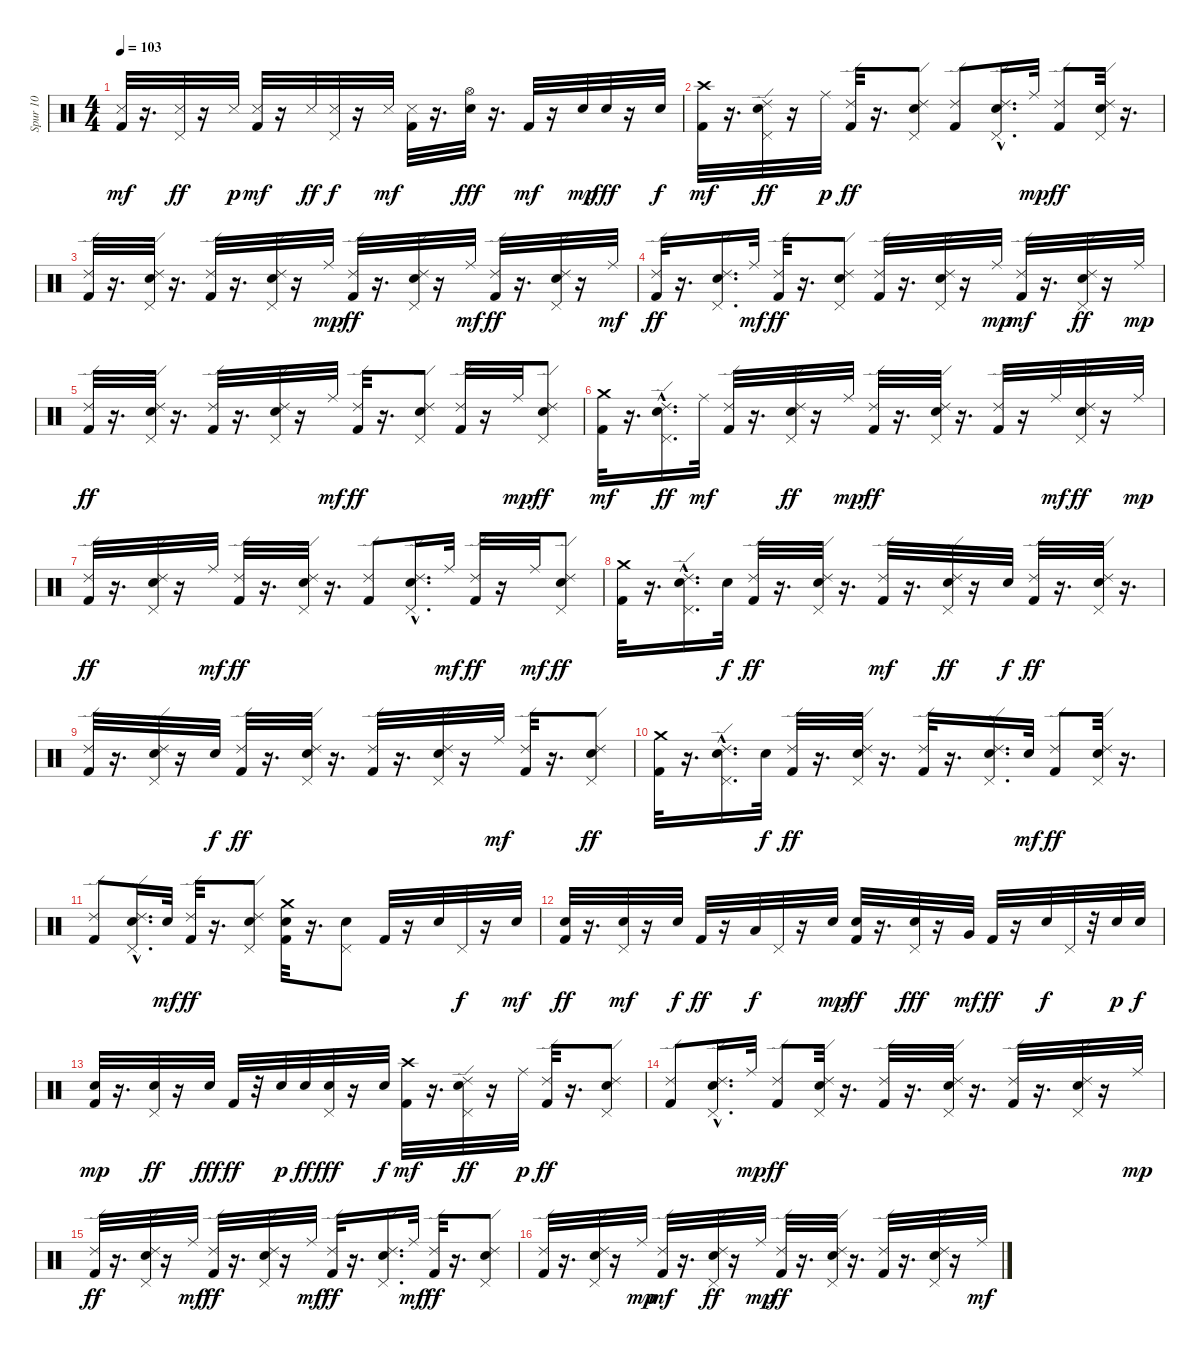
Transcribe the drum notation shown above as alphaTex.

\track ("Spur 10" "Spur 10") {instrument percussion}
\staff {score}
\articulation defaults
\ts (4 4)
\tempo 103
\clef neutral
\ks c
("Metronome (hit)" "Kick (hit) 2").32{dy mf} r.16{d} ("Pedal Hi-Hat (hit)" "Metronome (hit)").32{dy ff} r.16 "Metronome (hit)".32{dy p} ("Metronome (hit)" "Kick (hit) 2").32{dy mf} r.16 "Metronome (hit)".32{dy ff} ("Metronome (hit)" "Pedal Hi-Hat (hit)").32{dy f} r.16 "Metronome (hit)".32{dy mf} ("Metronome (hit)" "Kick (hit) 2").32 r.16{d} ("Hi-Hat (open)" "Electric Snare (hit)").32{dy fff} r.16{d} "Kick (hit) 2".32{dy mf} r.16 "Electric Snare (hit)".32{dy mp} "Electric Snare (hit)".32{dy fff} r.16 "Electric Snare (hit)".32{dy f} |
("Kick (hit) 2" "Crash high (hit)").32{dy mf} r.16{d} ("Pedal Hi-Hat (hit)" "Ride (edge) 2" "Electric Snare (hit)").32{dy ff} r.16 "Ride (middle)".32{dy p} ("Kick (hit) 2" "Ride (edge) 2").32{dy ff} r.16{d} ("Pedal Hi-Hat (hit)" "Ride (edge) 2" "Electric Snare (hit)").8 ("Kick (hit) 2" "Ride (edge) 2").8 ("Pedal Hi-Hat (hit)"{hac} "Ride (edge) 2" "Electric Snare (hit)").16{d} "Ride (middle)".32{dy mp} ("Kick (hit) 2" "Ride (edge) 2").8{dy ff} ("Pedal Hi-Hat (hit)" "Ride (edge) 2" "Electric Snare (hit)").32 r.16{d} |
("Kick (hit) 2" "Ride (edge) 2").32 r.16{d} ("Pedal Hi-Hat (hit)" "Ride (edge) 2" "Electric Snare (hit)").32 r.16{d} ("Kick (hit) 2" "Ride (edge) 2").32 r.16{d} ("Pedal Hi-Hat (hit)" "Ride (edge) 2" "Electric Snare (hit)").32 r.16 "Ride (middle)".32{dy mp} ("Kick (hit) 2" "Ride (edge) 2").32{dy ff} r.16{d} ("Pedal Hi-Hat (hit)" "Ride (edge) 2" "Electric Snare (hit)").32 r.16 "Ride (middle)".32{dy mf} ("Kick (hit) 2" "Ride (edge) 2").32{dy ff} r.16{d} ("Pedal Hi-Hat (hit)" "Ride (edge) 2" "Electric Snare (hit)").32 r.16 "Ride (middle)".32{dy mf} |
("Kick (hit) 2" "Ride (edge) 2").32{dy ff} r.16{d} ("Pedal Hi-Hat (hit)" "Ride (edge) 2" "Electric Snare (hit)").16{d} "Ride (middle)".32{dy mf} ("Kick (hit) 2" "Ride (edge) 2").32{dy ff} r.16{d} ("Pedal Hi-Hat (hit)" "Ride (edge) 2" "Electric Snare (hit)").8 ("Kick (hit) 2" "Ride (edge) 2").32 r.16{d} ("Pedal Hi-Hat (hit)" "Ride (edge) 2" "Electric Snare (hit)").32 r.16 "Ride (middle)".32{dy mp} ("Kick (hit) 2" "Ride (edge) 2").32{dy mf} r.16{d} ("Pedal Hi-Hat (hit)" "Ride (edge) 2" "Electric Snare (hit)").32{dy ff} r.16 "Ride (middle)".32{dy mp} |
("Kick (hit) 2" "Ride (edge) 2").32{dy ff} r.16{d} ("Pedal Hi-Hat (hit)" "Ride (edge) 2" "Electric Snare (hit)").32 r.16{d} ("Kick (hit) 2" "Ride (edge) 2").32 r.16{d} ("Pedal Hi-Hat (hit)" "Ride (edge) 2" "Electric Snare (hit)").32 r.16 "Ride (middle)".32{dy mf} ("Kick (hit) 2" "Ride (edge) 2").32{dy ff} r.16{d} ("Pedal Hi-Hat (hit)" "Ride (edge) 2" "Electric Snare (hit)").8 ("Kick (hit) 2" "Ride (edge) 2").32 r.16 "Ride (middle)".32{dy mp} ("Pedal Hi-Hat (hit)" "Ride (edge) 2" "Electric Snare (hit)").8{dy ff} |
("Kick (hit) 2" "Crash medium (hit)").32{dy mf} r.16{d} ("Pedal Hi-Hat (hit)"{hac} "Ride (edge) 2" "Electric Snare (hit)").16{d dy ff} "Ride (middle)".32{dy mf} ("Kick (hit) 2" "Ride (edge) 2").32 r.16{d} ("Pedal Hi-Hat (hit)" "Ride (edge) 2" "Electric Snare (hit)").32{dy ff} r.16 "Ride (middle)".32{dy mp} ("Kick (hit) 2" "Ride (edge) 2").32{dy ff} r.16{d} ("Pedal Hi-Hat (hit)" "Ride (edge) 2" "Electric Snare (hit)").32 r.16{d} ("Kick (hit) 2" "Ride (edge) 2").32 r.16 "Ride (middle)".32{dy mf} ("Pedal Hi-Hat (hit)" "Ride (edge) 2" "Electric Snare (hit)").32{dy ff} r.16 "Ride (middle)".32{dy mp} |
("Kick (hit) 2" "Ride (edge) 2").32{dy ff} r.16{d} ("Pedal Hi-Hat (hit)" "Ride (edge) 2" "Electric Snare (hit)").32 r.16 "Ride (middle)".32{dy mf} ("Kick (hit) 2" "Ride (edge) 2").32{dy ff} r.16{d} ("Pedal Hi-Hat (hit)" "Ride (edge) 2" "Electric Snare (hit)").32 r.16{d} ("Kick (hit) 2" "Ride (edge) 2").8 ("Pedal Hi-Hat (hit)" "Ride (edge) 2"{hac} "Electric Snare (hit)").16{d} "Ride (middle)".32{dy mf} ("Kick (hit) 2" "Ride (edge) 2").32{dy ff} r.16 "Ride (middle)".32{dy mf} ("Pedal Hi-Hat (hit)" "Ride (edge) 2" "Electric Snare (hit)").8{dy ff} |
("Kick (hit) 2" "Crash medium (hit)").32 r.16{d} ("Pedal Hi-Hat (hit)"{hac} "Ride (edge) 2" "Electric Snare (hit)").16{d} "Electric Snare (hit)".32{dy f} ("Kick (hit) 2" "Ride (edge) 2").32{dy ff} r.16{d} ("Pedal Hi-Hat (hit)" "Ride (edge) 2" "Electric Snare (hit)").32 r.16{d} ("Kick (hit) 2" "Ride (edge) 2").32{dy mf} r.16{d} ("Pedal Hi-Hat (hit)" "Ride (edge) 2" "Electric Snare (hit)").32{dy ff} r.16 "Electric Snare (hit)".32{dy f} ("Kick (hit) 2" "Ride (edge) 2").32{dy ff} r.16{d} ("Pedal Hi-Hat (hit)" "Ride (edge) 2" "Electric Snare (hit)").32 r.16{d} |
("Kick (hit) 2" "Ride (edge) 2").32 r.16{d} ("Pedal Hi-Hat (hit)" "Ride (edge) 2" "Electric Snare (hit)").32 r.16 "Electric Snare (hit)".32{dy f} ("Kick (hit) 2" "Ride (edge) 2").32{dy ff} r.16{d} ("Pedal Hi-Hat (hit)" "Ride (edge) 2" "Electric Snare (hit)").32 r.16{d} ("Kick (hit) 2" "Ride (edge) 2").32 r.16{d} ("Pedal Hi-Hat (hit)" "Ride (edge) 2" "Electric Snare (hit)").32 r.16 "Ride (middle)".32{dy mf} ("Kick (hit) 2" "Ride (edge) 2").32 r.16{d} ("Pedal Hi-Hat (hit)" "Ride (edge) 2" "Electric Snare (hit)").8{dy ff} |
("Kick (hit) 2" "Crash medium (hit)").32 r.16{d} ("Pedal Hi-Hat (hit)"{hac} "Ride (edge) 2" "Electric Snare (hit)").16{d} "Electric Snare (hit)".32{dy f} ("Kick (hit) 2" "Ride (edge) 2").32{dy ff} r.16{d} ("Pedal Hi-Hat (hit)" "Ride (edge) 2" "Electric Snare (hit)").32 r.16{d} ("Kick (hit) 2" "Ride (edge) 2").32 r.16{d} ("Pedal Hi-Hat (hit)" "Ride (edge) 2" "Electric Snare (hit)").16{d} "Electric Snare (hit)".32{dy mf} ("Kick (hit) 2" "Ride (edge) 2").8{dy ff} ("Pedal Hi-Hat (hit)" "Ride (edge) 2" "Electric Snare (hit)").32 r.16{d} |
("Kick (hit) 2" "Ride (edge) 2").8 ("Pedal Hi-Hat (hit)" "Ride (edge) 2"{hac} "Electric Snare (hit)").16{d} "Electric Snare (hit)".32{dy mf} ("Kick (hit) 2" "Ride (edge) 2").32{dy ff} r.16{d} ("Pedal Hi-Hat (hit)" "Ride (edge) 2" "Electric Snare (hit)").8 ("Kick (hit) 2" "Crash medium (hit)" "Electric Snare (hit)").32 r.16{d} ("Pedal Hi-Hat (hit)" "Electric Snare (hit)").8 "Kick (hit) 2".32 r.16 "Electric Snare (hit)".32 "Pedal Hi-Hat (hit)".32{dy f} r.16 "Electric Snare (hit)".32{dy mf} |
("Kick (hit) 2" "Electric Snare (hit)").32{dy ff} r.16{d} ("Pedal Hi-Hat (hit)" "Electric Snare (hit)").32{dy mf} r.16 "Electric Snare (hit)".32{dy f} "Kick (hit) 2".32{dy ff} r.16 "Low Tom (hit)".32{dy f} "Pedal Hi-Hat (hit)".32 r.16 "Electric Snare (hit)".32{dy mp} ("Kick (hit) 2" "Electric Snare (hit)").32{dy ff} r.16{d} ("Pedal Hi-Hat (hit)" "Electric Snare (hit)").32{dy fff} r.16 "Very Low Tom (hit)".32{dy mf} "Kick (hit) 2".32{dy ff} r.16 "Electric Snare (hit)".32{dy f} "Pedal Hi-Hat (hit)".32 r.32 "Electric Snare (hit)".32{dy p} "Electric Snare (hit)".32{dy f} |
("Kick (hit) 2" "Electric Snare (hit)").32{dy mp} r.16{d} ("Pedal Hi-Hat (hit)" "Electric Snare (hit)").32{dy ff} r.16 "Electric Snare (hit)".32{dy fff} "Kick (hit) 2".32{dy ff} r.32 "Electric Snare (hit)".32{dy p} "Electric Snare (hit)".32{dy ff} ("Pedal Hi-Hat (hit)" "Electric Snare (hit)").32{dy fff} r.16 "Electric Snare (hit)".32{dy f} ("Kick (hit) 2" "Crash high (hit)").32{dy mf} r.16{d} ("Pedal Hi-Hat (hit)" "Ride (edge) 2" "Electric Snare (hit)").32{dy ff} r.16 "Ride (middle)".32{dy p} ("Kick (hit) 2" "Ride (edge) 2").32{dy ff} r.16{d} ("Pedal Hi-Hat (hit)" "Ride (edge) 2" "Electric Snare (hit)").8 |
("Kick (hit) 2" "Ride (edge) 2").8 ("Pedal Hi-Hat (hit)"{hac} "Ride (edge) 2" "Electric Snare (hit)").16{d} "Ride (middle)".32{dy mp} ("Kick (hit) 2" "Ride (edge) 2").8{dy ff} ("Pedal Hi-Hat (hit)" "Ride (edge) 2" "Electric Snare (hit)").32 r.16{d} ("Kick (hit) 2" "Ride (edge) 2").32 r.16{d} ("Pedal Hi-Hat (hit)" "Ride (edge) 2" "Electric Snare (hit)").32 r.16{d} ("Kick (hit) 2" "Ride (edge) 2").32 r.16{d} ("Pedal Hi-Hat (hit)" "Ride (edge) 2" "Electric Snare (hit)").32 r.16 "Ride (middle)".32{dy mp} |
("Kick (hit) 2" "Ride (edge) 2").32{dy ff} r.16{d} ("Pedal Hi-Hat (hit)" "Ride (edge) 2" "Electric Snare (hit)").32 r.16 "Ride (middle)".32{dy mf} ("Kick (hit) 2" "Ride (edge) 2").32{dy ff} r.16{d} ("Pedal Hi-Hat (hit)" "Ride (edge) 2" "Electric Snare (hit)").32 r.16 "Ride (middle)".32{dy mf} ("Kick (hit) 2" "Ride (edge) 2").32{dy ff} r.16{d} ("Pedal Hi-Hat (hit)" "Ride (edge) 2" "Electric Snare (hit)").16{d} "Ride (middle)".32{dy mf} ("Kick (hit) 2" "Ride (edge) 2").32{dy ff} r.16{d} ("Pedal Hi-Hat (hit)" "Ride (edge) 2" "Electric Snare (hit)").8 |
("Kick (hit) 2" "Ride (edge) 2").32 r.16{d} ("Pedal Hi-Hat (hit)" "Ride (edge) 2" "Electric Snare (hit)").32 r.16 "Ride (middle)".32{dy mp} ("Kick (hit) 2" "Ride (edge) 2").32{dy mf} r.16{d} ("Pedal Hi-Hat (hit)" "Ride (edge) 2" "Electric Snare (hit)").32{dy ff} r.16 "Ride (middle)".32{dy mp} ("Kick (hit) 2" "Ride (edge) 2").32{dy ff} r.16{d} ("Pedal Hi-Hat (hit)" "Ride (edge) 2" "Electric Snare (hit)").32 r.16{d} ("Kick (hit) 2" "Ride (edge) 2").32 r.16{d} ("Pedal Hi-Hat (hit)" "Ride (edge) 2" "Electric Snare (hit)").32 r.16 "Ride (middle)".32{dy mf}
